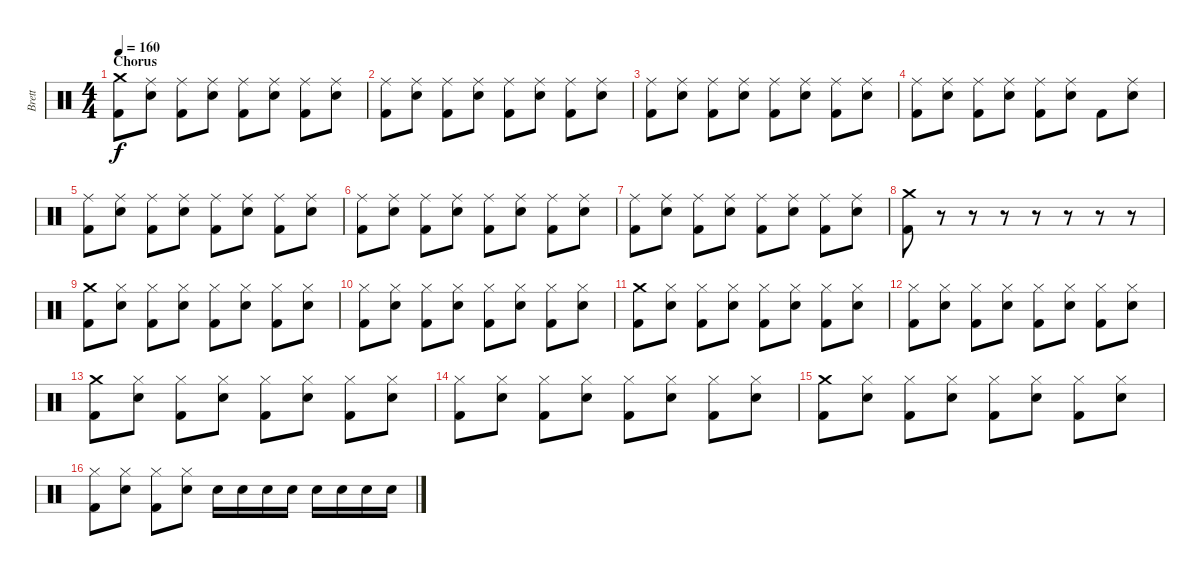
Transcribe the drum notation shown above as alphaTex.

\track ("Brett" "Brett") {instrument percussion}
\staff {score}
\articulation defaults
\ts (4 4)
\section ("" "Chorus")
\tempo 160
\clef neutral
\ks c
("Crash medium (hit)" "Kick (hit) 2").8{dy f} ("Ride (middle)" "Snare (hit) 2").8 ("Ride (middle)" "Kick (hit) 2").8 ("Ride (middle)" "Snare (hit) 2").8 ("Ride (middle)" "Kick (hit) 2").8 ("Ride (middle)" "Snare (hit) 2").8 ("Ride (middle)" "Kick (hit) 2").8 ("Ride (middle)" "Snare (hit) 2").8 |
("Ride (middle)" "Kick (hit) 2").8 ("Ride (middle)" "Snare (hit) 2").8 ("Ride (middle)" "Kick (hit) 2").8 ("Ride (middle)" "Snare (hit) 2").8 ("Ride (middle)" "Kick (hit) 2").8 ("Ride (middle)" "Snare (hit) 2").8 ("Ride (middle)" "Kick (hit) 2").8 ("Ride (middle)" "Snare (hit) 2").8 |
("Ride (middle)" "Kick (hit) 2").8 ("Ride (middle)" "Snare (hit) 2").8 ("Ride (middle)" "Kick (hit) 2").8 ("Ride (middle)" "Snare (hit) 2").8 ("Ride (middle)" "Kick (hit) 2").8 ("Ride (middle)" "Snare (hit) 2").8 ("Ride (middle)" "Kick (hit) 2").8 ("Ride (middle)" "Snare (hit) 2").8 |
("Ride (middle)" "Kick (hit) 2").8 ("Ride (middle)" "Snare (hit) 2").8 ("Ride (middle)" "Kick (hit) 2").8 ("Ride (middle)" "Snare (hit) 2").8 ("Ride (middle)" "Kick (hit) 2").8 ("Ride (middle)" "Snare (hit) 2").8 "Kick (hit) 2".8 ("Ride (middle)" "Snare (hit) 2").8 |
("Ride (middle)" "Kick (hit) 2").8 ("Ride (middle)" "Snare (hit) 2").8 ("Ride (middle)" "Kick (hit) 2").8 ("Ride (middle)" "Snare (hit) 2").8 ("Ride (middle)" "Kick (hit) 2").8 ("Ride (middle)" "Snare (hit) 2").8 ("Ride (middle)" "Kick (hit) 2").8 ("Ride (middle)" "Snare (hit) 2").8 |
("Ride (middle)" "Kick (hit) 2").8 ("Ride (middle)" "Snare (hit) 2").8 ("Ride (middle)" "Kick (hit) 2").8 ("Ride (middle)" "Snare (hit) 2").8 ("Ride (middle)" "Kick (hit) 2").8 ("Ride (middle)" "Snare (hit) 2").8 ("Ride (middle)" "Kick (hit) 2").8 ("Ride (middle)" "Snare (hit) 2").8 |
("Ride (middle)" "Kick (hit) 2").8 ("Ride (middle)" "Snare (hit) 2").8 ("Ride (middle)" "Kick (hit) 2").8 ("Ride (middle)" "Snare (hit) 2").8 ("Ride (middle)" "Kick (hit) 2").8 ("Ride (middle)" "Snare (hit) 2").8 ("Ride (middle)" "Kick (hit) 2").8 ("Ride (middle)" "Snare (hit) 2").8 |
("Crash medium (hit)" "Kick (hit) 2").8 r.8 r.8 r.8 r.8 r.8 r.8 r.8 |
\section ("" "")
("Crash medium (hit)" "Kick (hit) 2").8 ("Hi-Hat (closed)" "Snare (hit) 2").8 ("Hi-Hat (closed)" "Kick (hit) 2").8 ("Hi-Hat (closed)" "Snare (hit) 2").8 ("Hi-Hat (closed)" "Kick (hit) 2").8 ("Hi-Hat (closed)" "Snare (hit) 2").8 ("Hi-Hat (closed)" "Kick (hit) 2").8 ("Hi-Hat (closed)" "Snare (hit) 2").8 |
("Hi-Hat (closed)" "Kick (hit) 2").8 ("Hi-Hat (closed)" "Snare (hit) 2").8 ("Hi-Hat (closed)" "Kick (hit) 2").8 ("Hi-Hat (closed)" "Snare (hit) 2").8 ("Hi-Hat (closed)" "Kick (hit) 2").8 ("Hi-Hat (closed)" "Snare (hit) 2").8 ("Hi-Hat (closed)" "Kick (hit) 2").8 ("Hi-Hat (closed)" "Snare (hit) 2").8 |
("Crash medium (hit)" "Kick (hit) 2").8 ("Hi-Hat (closed)" "Snare (hit) 2").8 ("Hi-Hat (closed)" "Kick (hit) 2").8 ("Hi-Hat (closed)" "Snare (hit) 2").8 ("Hi-Hat (closed)" "Kick (hit) 2").8 ("Hi-Hat (closed)" "Snare (hit) 2").8 ("Hi-Hat (closed)" "Kick (hit) 2").8 ("Hi-Hat (closed)" "Snare (hit) 2").8 |
("Hi-Hat (closed)" "Kick (hit) 2").8 ("Hi-Hat (closed)" "Snare (hit) 2").8 ("Hi-Hat (closed)" "Kick (hit) 2").8 ("Hi-Hat (closed)" "Snare (hit) 2").8 ("Hi-Hat (closed)" "Kick (hit) 2").8 ("Hi-Hat (closed)" "Snare (hit) 2").8 ("Hi-Hat (closed)" "Kick (hit) 2").8 ("Hi-Hat (closed)" "Snare (hit) 2").8 |
("Crash medium (hit)" "Kick (hit) 2").8 ("Hi-Hat (closed)" "Snare (hit) 2").8 ("Hi-Hat (closed)" "Kick (hit) 2").8 ("Hi-Hat (closed)" "Snare (hit) 2").8 ("Hi-Hat (closed)" "Kick (hit) 2").8 ("Hi-Hat (closed)" "Snare (hit) 2").8 ("Hi-Hat (closed)" "Kick (hit) 2").8 ("Hi-Hat (closed)" "Snare (hit) 2").8 |
("Hi-Hat (closed)" "Kick (hit) 2").8 ("Hi-Hat (closed)" "Snare (hit) 2").8 ("Hi-Hat (closed)" "Kick (hit) 2").8 ("Hi-Hat (closed)" "Snare (hit) 2").8 ("Hi-Hat (closed)" "Kick (hit) 2").8 ("Hi-Hat (closed)" "Snare (hit) 2").8 ("Hi-Hat (closed)" "Kick (hit) 2").8 ("Hi-Hat (closed)" "Snare (hit) 2").8 |
("Crash medium (hit)" "Kick (hit) 2").8 ("Hi-Hat (closed)" "Snare (hit) 2").8 ("Hi-Hat (closed)" "Kick (hit) 2").8 ("Hi-Hat (closed)" "Snare (hit) 2").8 ("Hi-Hat (closed)" "Kick (hit) 2").8 ("Hi-Hat (closed)" "Snare (hit) 2").8 ("Hi-Hat (closed)" "Kick (hit) 2").8 ("Hi-Hat (closed)" "Snare (hit) 2").8 |
("Hi-Hat (closed)" "Kick (hit) 2").8 ("Hi-Hat (closed)" "Snare (hit) 2").8 ("Hi-Hat (closed)" "Kick (hit) 2").8 ("Hi-Hat (closed)" "Snare (hit) 2").8 "Snare (hit) 2".16 "Snare (hit) 2".16 "Snare (hit) 2".16 "Snare (hit) 2".16 "Snare (hit) 2".16 "Snare (hit) 2".16 "Snare (hit) 2".16 "Snare (hit) 2".16
